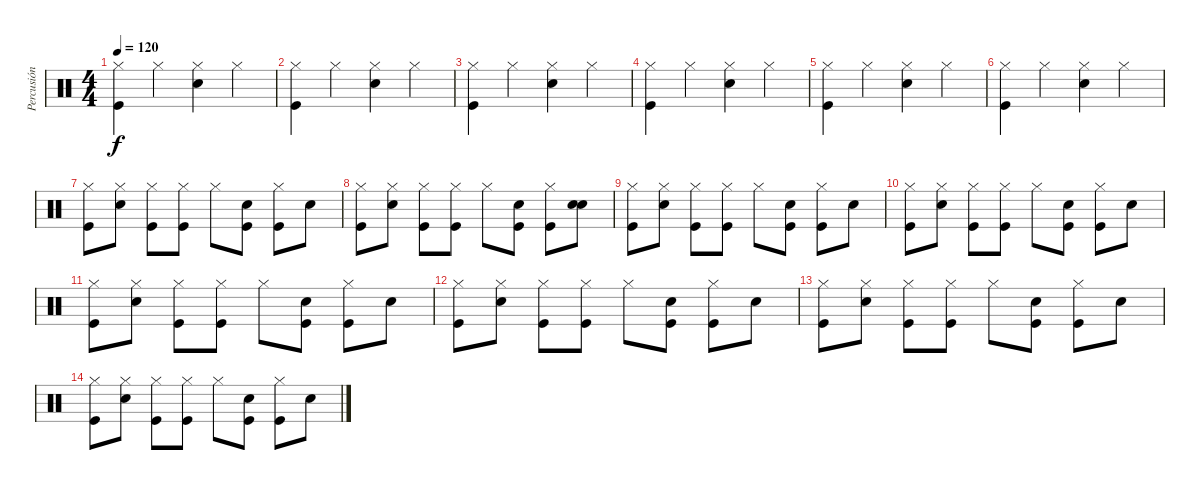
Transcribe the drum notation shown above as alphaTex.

\track ("Percusión" "Percusión") {instrument percussion}
\staff {score}
\articulation defaults
\ts (4 4)
\tempo 120
\clef neutral
\ks c
("Hi-Hat (closed)" "Kick (hit)").4{dy f} "Hi-Hat (closed)".4 ("Hi-Hat (closed)" "Snare (hit) 2").4 "Hi-Hat (closed)".4 |
("Hi-Hat (closed)" "Kick (hit)").4 "Hi-Hat (closed)".4 ("Hi-Hat (closed)" "Snare (hit) 2").4 "Hi-Hat (closed)".4 |
("Hi-Hat (closed)" "Kick (hit)").4 "Hi-Hat (closed)".4 ("Hi-Hat (closed)" "Snare (hit) 2").4 "Hi-Hat (closed)".4 |
("Hi-Hat (closed)" "Kick (hit)").4 "Hi-Hat (closed)".4 ("Hi-Hat (closed)" "Snare (hit) 2").4 "Hi-Hat (closed)".4 |
("Hi-Hat (closed)" "Kick (hit)").4 "Hi-Hat (closed)".4 ("Hi-Hat (closed)" "Snare (hit) 2").4 "Hi-Hat (closed)".4 |
("Hi-Hat (closed)" "Kick (hit)").4 "Hi-Hat (closed)".4 ("Hi-Hat (closed)" "Snare (hit) 2").4 "Hi-Hat (closed)".4 |
("Hi-Hat (closed)" "Kick (hit)").8 ("Hi-Hat (closed)"{x} "Electric Snare (hit)").8 ("Hi-Hat (closed)" "Kick (hit)").8 ("Hi-Hat (closed)"{x} "Kick (hit)").8 "Hi-Hat (closed)".8 ("Snare (hit)"{x} "Kick (hit)").8 ("Hi-Hat (closed)" "Kick (hit)").8 "Snare (hit)"{x}.8 |
("Hi-Hat (closed)" "Kick (hit)").8 ("Hi-Hat (closed)"{x} "Electric Snare (hit)").8 ("Hi-Hat (closed)" "Kick (hit)").8 ("Hi-Hat (closed)"{x} "Kick (hit)").8 "Hi-Hat (closed)".8 ("Snare (hit)"{x} "Kick (hit)").8 ("Hi-Hat (closed)" "Kick (hit)").8 ("Snare (hit)"{x} "Electric Snare (hit)").8 |
("Hi-Hat (closed)" "Kick (hit)").8 ("Hi-Hat (closed)"{x} "Electric Snare (hit)").8 ("Hi-Hat (closed)" "Kick (hit)").8 ("Hi-Hat (closed)"{x} "Kick (hit)").8 "Hi-Hat (closed)".8 ("Snare (hit)"{x} "Kick (hit)").8 ("Hi-Hat (closed)" "Kick (hit)").8 "Snare (hit)"{x}.8 |
("Hi-Hat (closed)" "Kick (hit)").8 ("Hi-Hat (closed)"{x} "Electric Snare (hit)").8 ("Hi-Hat (closed)" "Kick (hit)").8 ("Hi-Hat (closed)"{x} "Kick (hit)").8 "Hi-Hat (closed)".8 ("Snare (hit)"{x} "Kick (hit)").8 ("Hi-Hat (closed)" "Kick (hit)").8 "Snare (hit)"{x}.8 |
("Hi-Hat (closed)" "Kick (hit)").8 ("Hi-Hat (closed)"{x} "Electric Snare (hit)").8 ("Hi-Hat (closed)" "Kick (hit)").8 ("Hi-Hat (closed)"{x} "Kick (hit)").8 "Hi-Hat (closed)".8 ("Snare (hit)"{x} "Kick (hit)").8 ("Hi-Hat (closed)" "Kick (hit)").8 "Snare (hit)"{x}.8 |
("Hi-Hat (closed)" "Kick (hit)").8 ("Hi-Hat (closed)"{x} "Electric Snare (hit)").8 ("Hi-Hat (closed)" "Kick (hit)").8 ("Hi-Hat (closed)"{x} "Kick (hit)").8 "Hi-Hat (closed)".8 ("Snare (hit)"{x} "Kick (hit)").8 ("Hi-Hat (closed)" "Kick (hit)").8 "Snare (hit)"{x}.8 |
("Hi-Hat (closed)" "Kick (hit)").8 ("Hi-Hat (closed)"{x} "Electric Snare (hit)").8 ("Hi-Hat (closed)" "Kick (hit)").8 ("Hi-Hat (closed)"{x} "Kick (hit)").8 "Hi-Hat (closed)".8 ("Snare (hit)"{x} "Kick (hit)").8 ("Hi-Hat (closed)" "Kick (hit)").8 "Snare (hit)"{x}.8 |
("Hi-Hat (closed)" "Kick (hit)").8 ("Hi-Hat (closed)"{x} "Electric Snare (hit)").8 ("Hi-Hat (closed)" "Kick (hit)").8 ("Hi-Hat (closed)"{x} "Kick (hit)").8 "Hi-Hat (closed)".8 ("Snare (hit)"{x} "Kick (hit)").8 ("Hi-Hat (closed)" "Kick (hit)").8 "Snare (hit)"{x}.8
